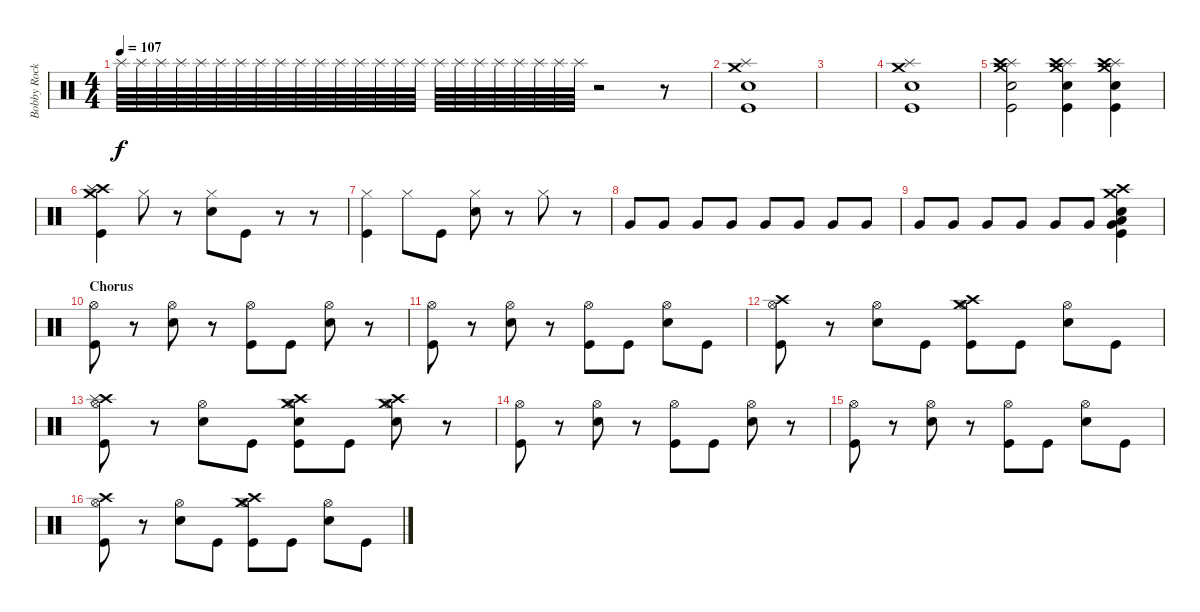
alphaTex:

\track ("Bobby Rock - drums" "Bobby Rock") {instrument percussion}
\staff {score}
\articulation defaults
\ts (4 4)
\tempo 107
\clef neutral
\ks c "Splash (hit)".64{dy f} "Splash (hit)".64 "Splash (hit)".64 "Splash (hit)".64 "Splash (hit)".64 "Splash (hit)".64 "Splash (hit)".64 "Splash (hit)".64 "Splash (hit)".64 "Splash (hit)".64 "Splash (hit)".64 "Splash (hit)".64 "Splash (hit)".64 "Splash (hit)".64 "Splash (hit)".64 "Splash (hit)".64 "Splash (hit)".64 "Splash (hit)".64 "Splash (hit)".64 "Splash (hit)".64 "Splash (hit)".64 "Splash (hit)".64 "Splash (hit)".64 "Splash (hit)".64
r.2 r.8 |
("Crash medium (hit)" "Splash (hit)" "Snare (hit) 2" "Kick (hit)").1 |
|
("Splash (hit)" "Crash medium (hit)" "Snare (hit) 2" "Kick (hit)").1 |
("Splash (hit)" "Crash high (hit)" "Crash medium (hit)" "Snare (hit) 2" "Kick (hit)").2 ("Splash (hit)" "Crash high (hit)" "Crash medium (hit)" "Snare (hit) 2" "Kick (hit)").4 ("Splash (hit)" "Crash high (hit)" "Crash medium (hit)" "Snare (hit) 2" "Kick (hit)").4 |
("Crash high (hit)" "Crash medium (hit)" "Splash (hit)" "Kick (hit)").4 "Hi-Hat (closed)".8 r.8 ("Hi-Hat (closed)" "Snare (hit) 2").8 "Kick (hit)".8 r.8 r.8 |
("Hi-Hat (closed)" "Kick (hit)").4 "Hi-Hat (closed)".8 "Kick (hit)".8 ("Hi-Hat (closed)" "Snare (hit) 2").8 r.8 "Hi-Hat (closed)".8 r.8{volume 4} |
"Very Low Tom (hit)".8{volume 13} "Very Low Tom (hit)".8 "Very Low Tom (hit)".8 "Very Low Tom (hit)".8 "Very Low Tom (hit)".8 "Very Low Tom (hit)".8 "Very Low Tom (hit)".8 "Very Low Tom (hit)".8 |
"Very Low Tom (hit)".8 "Very Low Tom (hit)".8 "Very Low Tom (hit)".8 "Very Low Tom (hit)".8 "Very Low Tom (hit)".8 "Very Low Tom (hit)".8 ("Crash high (hit)" "Crash medium (hit)" "Snare (hit) 2" "Very Low Tom (hit)" "Low Floor Tom (hit)" "Kick (hit)").4 |
\section ("" "Chorus")
("Hi-Hat (open)" "Kick (hit)").8 r.8 ("Hi-Hat (open)" "Snare (hit) 2").8 r.8 ("Hi-Hat (open)" "Kick (hit)").8 "Kick (hit)".8 ("Hi-Hat (open)" "Snare (hit) 2").8 r.8 |
("Hi-Hat (open)" "Kick (hit)").8 r.8 ("Hi-Hat (open)" "Snare (hit) 2").8 r.8 ("Hi-Hat (open)" "Kick (hit)").8 "Kick (hit)".8 ("Hi-Hat (open)" "Snare (hit) 2").8 "Kick (hit)".8 |
("Hi-Hat (open)" "Crash high (hit)" "Kick (hit)").8 r.8 ("Hi-Hat (open)" "Snare (hit) 2").8 "Kick (hit)".8 ("Hi-Hat (open)" "Crash medium (hit)" "Crash high (hit)" "Kick (hit)").8 "Kick (hit)".8 ("Hi-Hat (open)" "Snare (hit) 2").8 "Kick (hit)".8 |
("Hi-Hat (open)" "Crash high (hit)" "Splash (hit)" "Kick (hit)").8 r.8 ("Hi-Hat (open)" "Snare (hit) 2").8 "Kick (hit)".8 ("Hi-Hat (open)" "Crash medium (hit)" "Crash high (hit)" "Snare (hit) 2" "Kick (hit)").8 "Kick (hit)".8 ("Hi-Hat (open)" "Crash high (hit)" "Crash medium (hit)" "Snare (hit) 2").8 r.8 |
("Hi-Hat (open)" "Kick (hit)").8 r.8 ("Hi-Hat (open)" "Snare (hit) 2").8 r.8 ("Hi-Hat (open)" "Kick (hit)").8 "Kick (hit)".8 ("Hi-Hat (open)" "Snare (hit) 2").8 r.8 |
("Hi-Hat (open)" "Kick (hit)").8 r.8 ("Hi-Hat (open)" "Snare (hit) 2").8 r.8 ("Hi-Hat (open)" "Kick (hit)").8 "Kick (hit)".8 ("Hi-Hat (open)" "Snare (hit) 2").8 "Kick (hit)".8 |
("Hi-Hat (open)" "Crash high (hit)" "Kick (hit)").8 r.8 ("Hi-Hat (open)" "Snare (hit) 2").8 "Kick (hit)".8 ("Hi-Hat (open)" "Crash medium (hit)" "Crash high (hit)" "Kick (hit)").8 "Kick (hit)".8 ("Hi-Hat (open)" "Snare (hit) 2").8 "Kick (hit)".8
